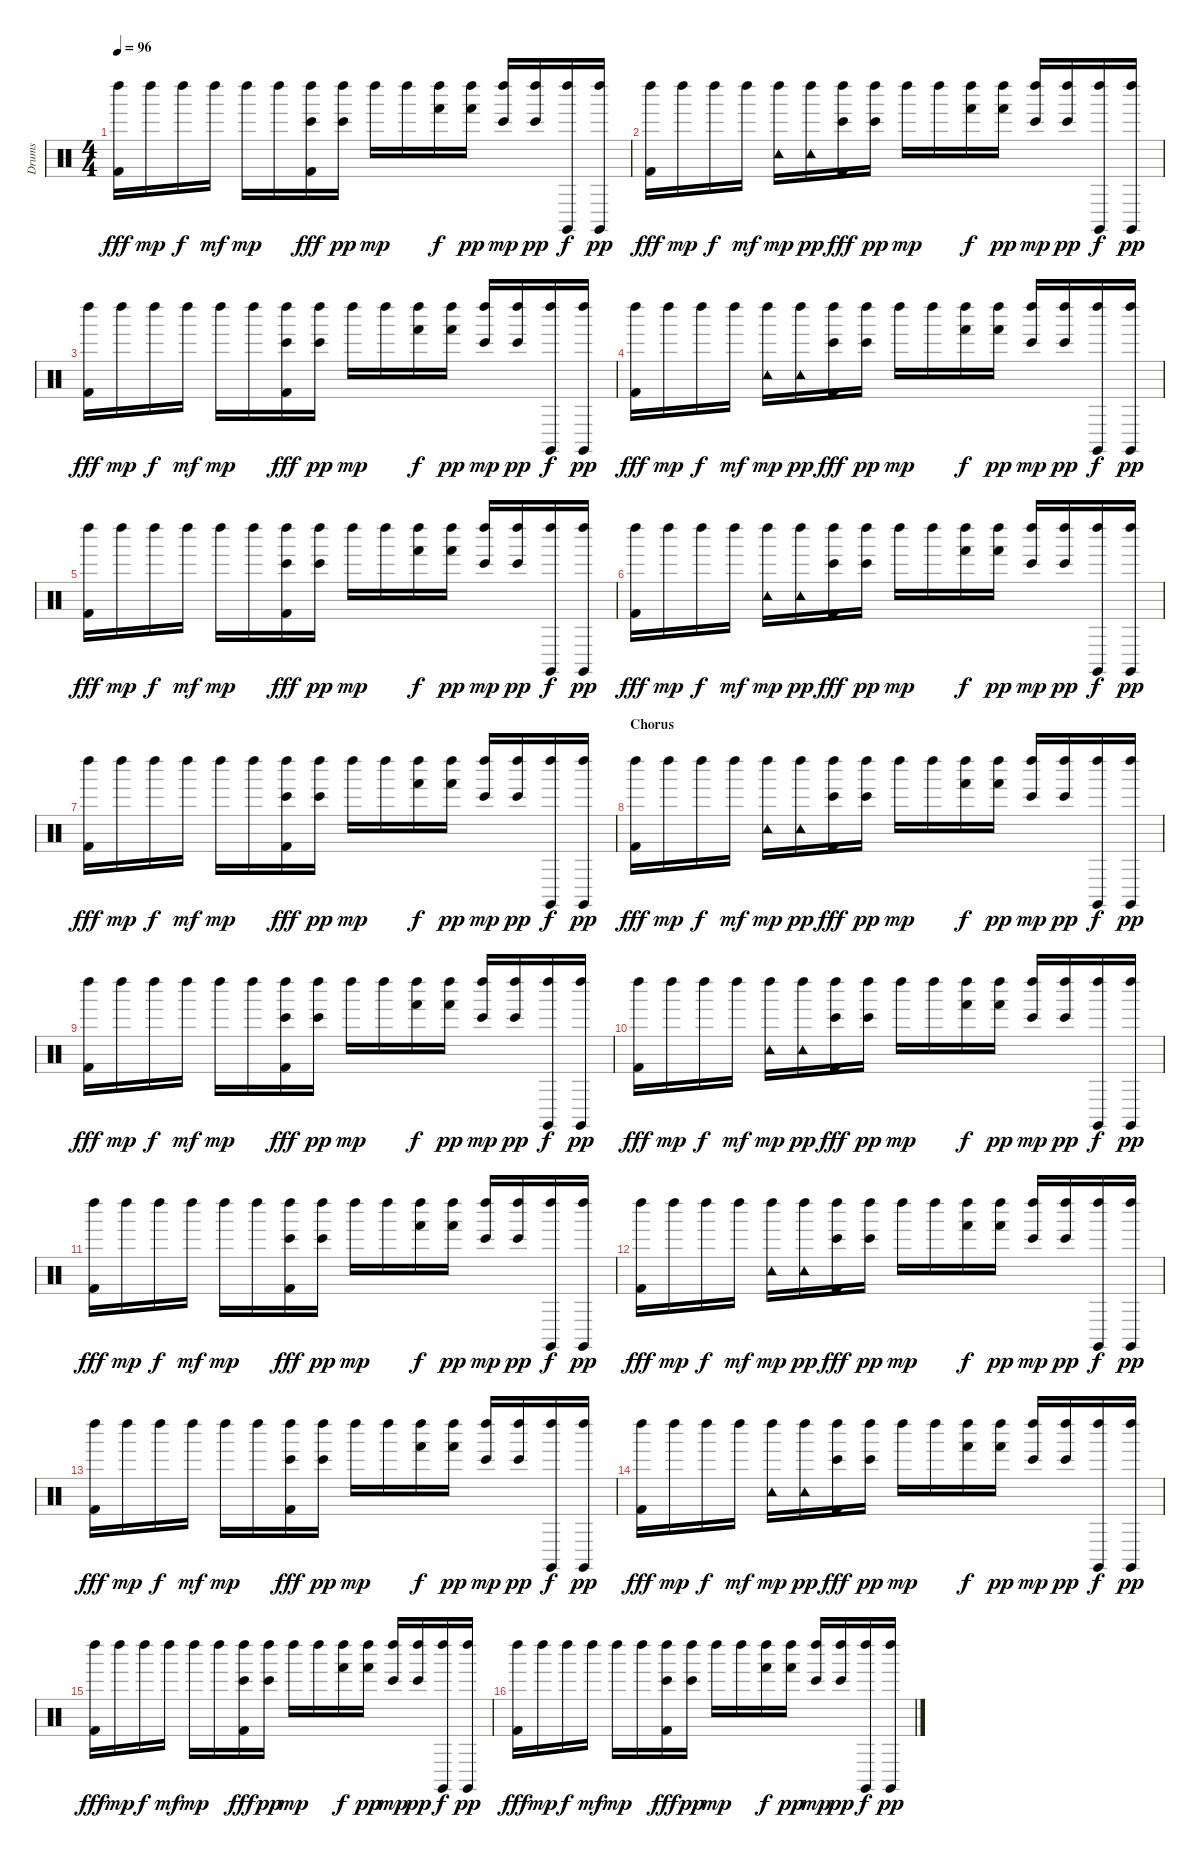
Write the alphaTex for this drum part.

\track ("Drums" "Drums") {instrument percussion}
\staff {score}
\articulation defaults
\ts (4 4)
\tempo 96
\clef neutral
\ks c
("Left Maraca (hit)" "Kick (hit) 2").16{dy fff} "Left Maraca (hit)".16{dy mp} "Left Maraca (hit)".16{dy f} "Left Maraca (hit)".16{dy mf} "Left Maraca (hit)".16{dy mp} "Left Maraca (hit)".16 ("Left Maraca (hit)" "Bongo High (hit)" "Kick (hit) 2").16{dy fff} ("Left Maraca (hit)" "Bongo High (hit)").16{dy pp} "Left Maraca (hit)".16{dy mp} "Left Maraca (hit)".16 ("Left Maraca (hit)" "Hand (hit)").16{dy f} ("Left Maraca (hit)" "Hand (hit)").16{dy pp} ("Left Maraca (hit)" "Bongo High (hit)").16{dy mp} ("Left Maraca (hit)" "Bongo High (hit)").16{dy pp} ("Left Maraca (hit)" "Claves (hit)").16{dy f} ("Left Maraca (hit)" "Claves (hit)").16{dy pp} |
("Left Maraca (hit)" "Kick (hit) 2").16{dy fff} "Left Maraca (hit)".16{dy mp} "Left Maraca (hit)".16{dy f} "Left Maraca (hit)".16{dy mf} ("Left Maraca (hit)" "Tambourine (hit)").16{dy mp} ("Left Maraca (hit)" "Tambourine (hit)").16{dy pp} ("Left Maraca (hit)" "Bongo High (hit)" "Kick (hit) 2").16{dy fff} ("Left Maraca (hit)" "Bongo High (hit)").16{dy pp} "Left Maraca (hit)".16{dy mp} "Left Maraca (hit)".16 ("Left Maraca (hit)" "Hand (hit)").16{dy f} ("Left Maraca (hit)" "Hand (hit)").16{dy pp} ("Left Maraca (hit)" "Bongo High (hit)").16{dy mp} ("Left Maraca (hit)" "Bongo High (hit)").16{dy pp} ("Left Maraca (hit)" "Claves (hit)").16{dy f} ("Left Maraca (hit)" "Claves (hit)").16{dy pp} |
("Left Maraca (hit)" "Kick (hit) 2").16{dy fff} "Left Maraca (hit)".16{dy mp} "Left Maraca (hit)".16{dy f} "Left Maraca (hit)".16{dy mf} "Left Maraca (hit)".16{dy mp} "Left Maraca (hit)".16 ("Left Maraca (hit)" "Bongo High (hit)" "Kick (hit) 2").16{dy fff} ("Left Maraca (hit)" "Bongo High (hit)").16{dy pp} "Left Maraca (hit)".16{dy mp} "Left Maraca (hit)".16 ("Left Maraca (hit)" "Hand (hit)").16{dy f} ("Left Maraca (hit)" "Hand (hit)").16{dy pp} ("Left Maraca (hit)" "Bongo High (hit)").16{dy mp} ("Left Maraca (hit)" "Bongo High (hit)").16{dy pp} ("Left Maraca (hit)" "Claves (hit)").16{dy f} ("Left Maraca (hit)" "Claves (hit)").16{dy pp} |
("Left Maraca (hit)" "Kick (hit) 2").16{dy fff} "Left Maraca (hit)".16{dy mp} "Left Maraca (hit)".16{dy f} "Left Maraca (hit)".16{dy mf} ("Left Maraca (hit)" "Tambourine (hit)").16{dy mp} ("Left Maraca (hit)" "Tambourine (hit)").16{dy pp} ("Left Maraca (hit)" "Bongo High (hit)" "Kick (hit) 2").16{dy fff} ("Left Maraca (hit)" "Bongo High (hit)").16{dy pp} "Left Maraca (hit)".16{dy mp} "Left Maraca (hit)".16 ("Left Maraca (hit)" "Hand (hit)").16{dy f} ("Left Maraca (hit)" "Hand (hit)").16{dy pp} ("Left Maraca (hit)" "Bongo High (hit)").16{dy mp} ("Left Maraca (hit)" "Bongo High (hit)").16{dy pp} ("Left Maraca (hit)" "Claves (hit)").16{dy f} ("Left Maraca (hit)" "Claves (hit)").16{dy pp} |
("Left Maraca (hit)" "Kick (hit) 2").16{dy fff} "Left Maraca (hit)".16{dy mp} "Left Maraca (hit)".16{dy f} "Left Maraca (hit)".16{dy mf} "Left Maraca (hit)".16{dy mp} "Left Maraca (hit)".16 ("Left Maraca (hit)" "Bongo High (hit)" "Kick (hit) 2").16{dy fff} ("Left Maraca (hit)" "Bongo High (hit)").16{dy pp} "Left Maraca (hit)".16{dy mp} "Left Maraca (hit)".16 ("Left Maraca (hit)" "Hand (hit)").16{dy f} ("Left Maraca (hit)" "Hand (hit)").16{dy pp} ("Left Maraca (hit)" "Bongo High (hit)").16{dy mp} ("Left Maraca (hit)" "Bongo High (hit)").16{dy pp} ("Left Maraca (hit)" "Claves (hit)").16{dy f} ("Left Maraca (hit)" "Claves (hit)").16{dy pp} |
("Left Maraca (hit)" "Kick (hit) 2").16{dy fff} "Left Maraca (hit)".16{dy mp} "Left Maraca (hit)".16{dy f} "Left Maraca (hit)".16{dy mf} ("Left Maraca (hit)" "Tambourine (hit)").16{dy mp} ("Left Maraca (hit)" "Tambourine (hit)").16{dy pp} ("Left Maraca (hit)" "Bongo High (hit)" "Kick (hit) 2").16{dy fff} ("Left Maraca (hit)" "Bongo High (hit)").16{dy pp} "Left Maraca (hit)".16{dy mp} "Left Maraca (hit)".16 ("Left Maraca (hit)" "Hand (hit)").16{dy f} ("Left Maraca (hit)" "Hand (hit)").16{dy pp} ("Left Maraca (hit)" "Bongo High (hit)").16{dy mp} ("Left Maraca (hit)" "Bongo High (hit)").16{dy pp} ("Left Maraca (hit)" "Claves (hit)").16{dy f} ("Left Maraca (hit)" "Claves (hit)").16{dy pp} |
("Left Maraca (hit)" "Kick (hit) 2").16{dy fff} "Left Maraca (hit)".16{dy mp} "Left Maraca (hit)".16{dy f} "Left Maraca (hit)".16{dy mf} "Left Maraca (hit)".16{dy mp} "Left Maraca (hit)".16 ("Left Maraca (hit)" "Bongo High (hit)" "Kick (hit) 2").16{dy fff} ("Left Maraca (hit)" "Bongo High (hit)").16{dy pp} "Left Maraca (hit)".16{dy mp} "Left Maraca (hit)".16 ("Left Maraca (hit)" "Hand (hit)").16{dy f} ("Left Maraca (hit)" "Hand (hit)").16{dy pp} ("Left Maraca (hit)" "Bongo High (hit)").16{dy mp} ("Left Maraca (hit)" "Bongo High (hit)").16{dy pp} ("Left Maraca (hit)" "Claves (hit)").16{dy f} ("Left Maraca (hit)" "Claves (hit)").16{dy pp} |
\section ("" "Chorus")
("Left Maraca (hit)" "Kick (hit) 2").16{dy fff} "Left Maraca (hit)".16{dy mp} "Left Maraca (hit)".16{dy f} "Left Maraca (hit)".16{dy mf} ("Left Maraca (hit)" "Tambourine (hit)").16{dy mp} ("Left Maraca (hit)" "Tambourine (hit)").16{dy pp} ("Left Maraca (hit)" "Bongo High (hit)" "Kick (hit) 2").16{dy fff} ("Left Maraca (hit)" "Bongo High (hit)").16{dy pp} "Left Maraca (hit)".16{dy mp} "Left Maraca (hit)".16 ("Left Maraca (hit)" "Hand (hit)").16{dy f} ("Left Maraca (hit)" "Hand (hit)").16{dy pp} ("Left Maraca (hit)" "Bongo High (hit)").16{dy mp} ("Left Maraca (hit)" "Bongo High (hit)").16{dy pp} ("Left Maraca (hit)" "Claves (hit)").16{dy f} ("Left Maraca (hit)" "Claves (hit)").16{dy pp} |
("Left Maraca (hit)" "Kick (hit) 2").16{dy fff} "Left Maraca (hit)".16{dy mp} "Left Maraca (hit)".16{dy f} "Left Maraca (hit)".16{dy mf} "Left Maraca (hit)".16{dy mp} "Left Maraca (hit)".16 ("Left Maraca (hit)" "Bongo High (hit)" "Kick (hit) 2").16{dy fff} ("Left Maraca (hit)" "Bongo High (hit)").16{dy pp} "Left Maraca (hit)".16{dy mp} "Left Maraca (hit)".16 ("Left Maraca (hit)" "Hand (hit)").16{dy f} ("Left Maraca (hit)" "Hand (hit)").16{dy pp} ("Left Maraca (hit)" "Bongo High (hit)").16{dy mp} ("Left Maraca (hit)" "Bongo High (hit)").16{dy pp} ("Left Maraca (hit)" "Claves (hit)").16{dy f} ("Left Maraca (hit)" "Claves (hit)").16{dy pp} |
("Left Maraca (hit)" "Kick (hit) 2").16{dy fff} "Left Maraca (hit)".16{dy mp} "Left Maraca (hit)".16{dy f} "Left Maraca (hit)".16{dy mf} ("Left Maraca (hit)" "Tambourine (hit)").16{dy mp} ("Left Maraca (hit)" "Tambourine (hit)").16{dy pp} ("Left Maraca (hit)" "Bongo High (hit)" "Kick (hit) 2").16{dy fff} ("Left Maraca (hit)" "Bongo High (hit)").16{dy pp} "Left Maraca (hit)".16{dy mp} "Left Maraca (hit)".16 ("Left Maraca (hit)" "Hand (hit)").16{dy f} ("Left Maraca (hit)" "Hand (hit)").16{dy pp} ("Left Maraca (hit)" "Bongo High (hit)").16{dy mp} ("Left Maraca (hit)" "Bongo High (hit)").16{dy pp} ("Left Maraca (hit)" "Claves (hit)").16{dy f} ("Left Maraca (hit)" "Claves (hit)").16{dy pp} |
("Left Maraca (hit)" "Kick (hit) 2").16{dy fff} "Left Maraca (hit)".16{dy mp} "Left Maraca (hit)".16{dy f} "Left Maraca (hit)".16{dy mf} "Left Maraca (hit)".16{dy mp} "Left Maraca (hit)".16 ("Left Maraca (hit)" "Bongo High (hit)" "Kick (hit) 2").16{dy fff} ("Left Maraca (hit)" "Bongo High (hit)").16{dy pp} "Left Maraca (hit)".16{dy mp} "Left Maraca (hit)".16 ("Left Maraca (hit)" "Hand (hit)").16{dy f} ("Left Maraca (hit)" "Hand (hit)").16{dy pp} ("Left Maraca (hit)" "Bongo High (hit)").16{dy mp} ("Left Maraca (hit)" "Bongo High (hit)").16{dy pp} ("Left Maraca (hit)" "Claves (hit)").16{dy f} ("Left Maraca (hit)" "Claves (hit)").16{dy pp} |
("Left Maraca (hit)" "Kick (hit) 2").16{dy fff} "Left Maraca (hit)".16{dy mp} "Left Maraca (hit)".16{dy f} "Left Maraca (hit)".16{dy mf} ("Left Maraca (hit)" "Tambourine (hit)").16{dy mp} ("Left Maraca (hit)" "Tambourine (hit)").16{dy pp} ("Left Maraca (hit)" "Bongo High (hit)" "Kick (hit) 2").16{dy fff} ("Left Maraca (hit)" "Bongo High (hit)").16{dy pp} "Left Maraca (hit)".16{dy mp} "Left Maraca (hit)".16 ("Left Maraca (hit)" "Hand (hit)").16{dy f} ("Left Maraca (hit)" "Hand (hit)").16{dy pp} ("Left Maraca (hit)" "Bongo High (hit)").16{dy mp} ("Left Maraca (hit)" "Bongo High (hit)").16{dy pp} ("Left Maraca (hit)" "Claves (hit)").16{dy f} ("Left Maraca (hit)" "Claves (hit)").16{dy pp} |
("Left Maraca (hit)" "Kick (hit) 2").16{dy fff} "Left Maraca (hit)".16{dy mp} "Left Maraca (hit)".16{dy f} "Left Maraca (hit)".16{dy mf} "Left Maraca (hit)".16{dy mp} "Left Maraca (hit)".16 ("Left Maraca (hit)" "Bongo High (hit)" "Kick (hit) 2").16{dy fff} ("Left Maraca (hit)" "Bongo High (hit)").16{dy pp} "Left Maraca (hit)".16{dy mp} "Left Maraca (hit)".16 ("Left Maraca (hit)" "Hand (hit)").16{dy f} ("Left Maraca (hit)" "Hand (hit)").16{dy pp} ("Left Maraca (hit)" "Bongo High (hit)").16{dy mp} ("Left Maraca (hit)" "Bongo High (hit)").16{dy pp} ("Left Maraca (hit)" "Claves (hit)").16{dy f} ("Left Maraca (hit)" "Claves (hit)").16{dy pp} |
("Left Maraca (hit)" "Kick (hit) 2").16{dy fff} "Left Maraca (hit)".16{dy mp} "Left Maraca (hit)".16{dy f} "Left Maraca (hit)".16{dy mf} ("Left Maraca (hit)" "Tambourine (hit)").16{dy mp} ("Left Maraca (hit)" "Tambourine (hit)").16{dy pp} ("Left Maraca (hit)" "Bongo High (hit)" "Kick (hit) 2").16{dy fff} ("Left Maraca (hit)" "Bongo High (hit)").16{dy pp} "Left Maraca (hit)".16{dy mp} "Left Maraca (hit)".16 ("Left Maraca (hit)" "Hand (hit)").16{dy f} ("Left Maraca (hit)" "Hand (hit)").16{dy pp} ("Left Maraca (hit)" "Bongo High (hit)").16{dy mp} ("Left Maraca (hit)" "Bongo High (hit)").16{dy pp} ("Left Maraca (hit)" "Claves (hit)").16{dy f} ("Left Maraca (hit)" "Claves (hit)").16{dy pp} |
("Left Maraca (hit)" "Kick (hit) 2").16{dy fff} "Left Maraca (hit)".16{dy mp} "Left Maraca (hit)".16{dy f} "Left Maraca (hit)".16{dy mf} "Left Maraca (hit)".16{dy mp} "Left Maraca (hit)".16 ("Left Maraca (hit)" "Bongo High (hit)" "Kick (hit) 2").16{dy fff} ("Left Maraca (hit)" "Bongo High (hit)").16{dy pp} "Left Maraca (hit)".16{dy mp} "Left Maraca (hit)".16 ("Left Maraca (hit)" "Hand (hit)").16{dy f} ("Left Maraca (hit)" "Hand (hit)").16{dy pp} ("Left Maraca (hit)" "Bongo High (hit)").16{dy mp} ("Left Maraca (hit)" "Bongo High (hit)").16{dy pp} ("Left Maraca (hit)" "Claves (hit)").16{dy f} ("Left Maraca (hit)" "Claves (hit)").16{dy pp} |
("Left Maraca (hit)" "Kick (hit) 2").16{dy fff} "Left Maraca (hit)".16{dy mp} "Left Maraca (hit)".16{dy f} "Left Maraca (hit)".16{dy mf} "Left Maraca (hit)".16{dy mp} "Left Maraca (hit)".16 ("Left Maraca (hit)" "Bongo High (hit)" "Kick (hit) 2").16{dy fff} ("Left Maraca (hit)" "Bongo High (hit)").16{dy pp} "Left Maraca (hit)".16{dy mp} "Left Maraca (hit)".16 ("Left Maraca (hit)" "Hand (hit)").16{dy f} ("Left Maraca (hit)" "Hand (hit)").16{dy pp} ("Left Maraca (hit)" "Bongo High (hit)").16{dy mp} ("Left Maraca (hit)" "Bongo High (hit)").16{dy pp} ("Left Maraca (hit)" "Claves (hit)").16{dy f} ("Left Maraca (hit)" "Claves (hit)").16{dy pp}
